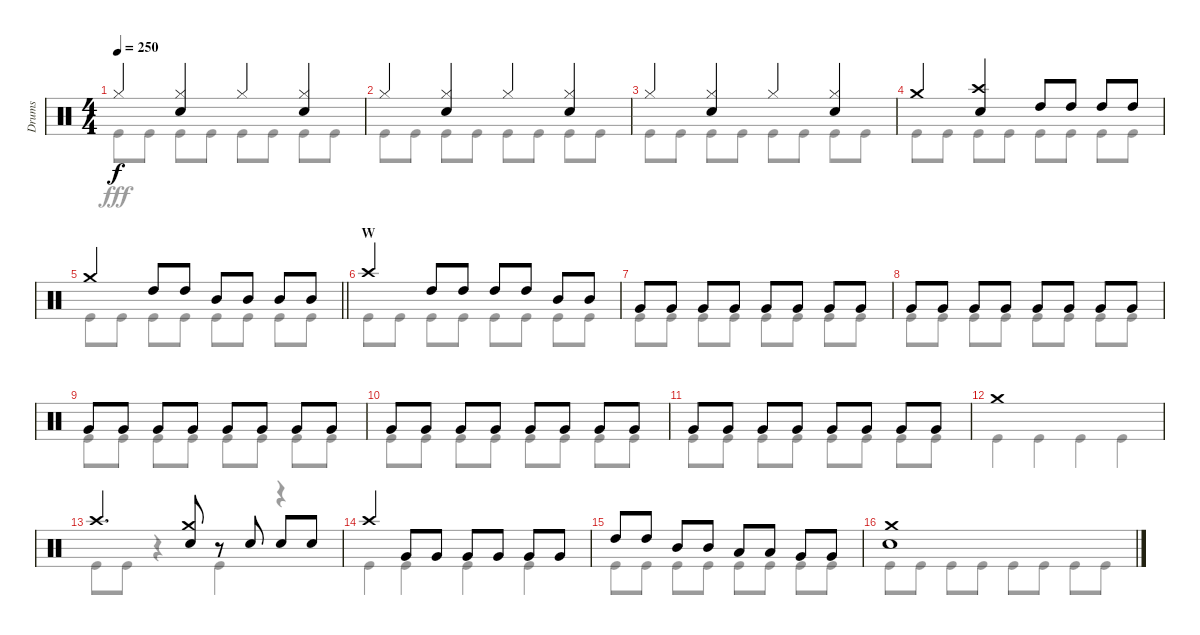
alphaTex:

\track ("Drums" "Drums") {instrument percussion}
\staff {score}
\articulation defaults
\voice
\ts (4 4)
\tempo 250
\clef neutral
\ks c "Hi-Hat (closed)".4{dy f}
("Hi-Hat (closed)" "Snare (hit) 2").4 "Hi-Hat (closed)".4 ("Hi-Hat (closed)" "Snare (hit) 2").4 |
"Hi-Hat (closed)".4 ("Hi-Hat (closed)" "Snare (hit) 2").4 "Hi-Hat (closed)".4 ("Hi-Hat (closed)" "Snare (hit) 2").4 |
"Hi-Hat (closed)".4 ("Hi-Hat (closed)" "Snare (hit) 2").4 "Hi-Hat (closed)".4 ("Hi-Hat (closed)" "Snare (hit) 2").4 |
"Crash medium (hit)".4 ("Crash high (hit)" "Snare (hit) 2").4 "High Tom (hit)".8 "High Tom (hit)".8 "High Tom (hit)".8 "High Tom (hit)".8 |
\barLineRight lightlight "Crash medium (hit)".4 "High Tom (hit)".8 "High Tom (hit)".8 "Mid Tom (hit)".8 "Mid Tom (hit)".8 "Mid Tom (hit)".8 "Mid Tom (hit)".8
|
\section ("" "W")
"Crash high (hit)".4 "High Tom (hit)".8 "High Tom (hit)".8 "High Tom (hit)".8 "High Tom (hit)".8 "Mid Tom (hit)".8 "Mid Tom (hit)".8 |
"Very Low Tom (hit)".8 "Very Low Tom (hit)".8 "Very Low Tom (hit)".8 "Very Low Tom (hit)".8 "Very Low Tom (hit)".8 "Very Low Tom (hit)".8 "Very Low Tom (hit)".8 "Very Low Tom (hit)".8 |
"Very Low Tom (hit)".8 "Very Low Tom (hit)".8 "Very Low Tom (hit)".8 "Very Low Tom (hit)".8 "Very Low Tom (hit)".8 "Very Low Tom (hit)".8 "Very Low Tom (hit)".8 "Very Low Tom (hit)".8 |
"Very Low Tom (hit)".8 "Very Low Tom (hit)".8 "Very Low Tom (hit)".8 "Very Low Tom (hit)".8 "Very Low Tom (hit)".8 "Very Low Tom (hit)".8 "Very Low Tom (hit)".8 "Very Low Tom (hit)".8 |
"Very Low Tom (hit)".8 "Very Low Tom (hit)".8 "Very Low Tom (hit)".8 "Very Low Tom (hit)".8 "Very Low Tom (hit)".8 "Very Low Tom (hit)".8 "Very Low Tom (hit)".8 "Very Low Tom (hit)".8 |
"Very Low Tom (hit)".8 "Very Low Tom (hit)".8 "Very Low Tom (hit)".8 "Very Low Tom (hit)".8 "Very Low Tom (hit)".8 "Very Low Tom (hit)".8 "Very Low Tom (hit)".8 "Very Low Tom (hit)".8 |
"Crash medium (hit)".1 |
"Crash high (hit)".4{d} ("Crash medium (hit)" "Snare (hit) 2").8 r.8 "Snare (hit) 2".8 "Snare (hit) 2".8 "Snare (hit) 2".8 |
"Crash high (hit)".4 "Very Low Tom (hit)".8 "Very Low Tom (hit)".8 "Very Low Tom (hit)".8 "Very Low Tom (hit)".8 "Very Low Tom (hit)".8 "Very Low Tom (hit)".8 |
"High Tom (hit)".8 "High Tom (hit)".8 "Mid Tom (hit)".8 "Mid Tom (hit)".8 "Low Tom (hit)".8 "Low Tom (hit)".8 "Very Low Tom (hit)".8 "Very Low Tom (hit)".8 |
("Crash medium (hit)" "Snare (hit) 2").1
\voice
\clef neutral
\ottava regular
\simile none
\ks c "Kick (hit)".8{dy fff} "Kick (hit)".8 "Kick (hit)".8 "Kick (hit)".8 "Kick (hit)".8 "Kick (hit)".8 "Kick (hit)".8 "Kick (hit)".8
|
"Kick (hit)".8 "Kick (hit)".8 "Kick (hit)".8 "Kick (hit)".8 "Kick (hit)".8 "Kick (hit)".8 "Kick (hit)".8 "Kick (hit)".8 |
"Kick (hit)".8 "Kick (hit)".8 "Kick (hit)".8 "Kick (hit)".8 "Kick (hit)".8 "Kick (hit)".8 "Kick (hit)".8 "Kick (hit)".8 |
"Kick (hit)".8 "Kick (hit)".8 "Kick (hit)".8 "Kick (hit)".8 "Kick (hit)".8 "Kick (hit)".8 "Kick (hit)".8 "Kick (hit)".8 |
\barLineRight lightlight "Kick (hit)".8 "Kick (hit)".8 "Kick (hit)".8 "Kick (hit)".8 "Kick (hit)".8 "Kick (hit)".8 "Kick (hit)".8 "Kick (hit)".8
|
"Kick (hit)".8 "Kick (hit)".8 "Kick (hit)".8 "Kick (hit)".8 "Kick (hit)".8 "Kick (hit)".8 "Kick (hit)".8 "Kick (hit)".8 |
"Kick (hit)".8 "Kick (hit)".8 "Kick (hit)".8 "Kick (hit)".8 "Kick (hit)".8 "Kick (hit)".8 "Kick (hit)".8 "Kick (hit)".8 |
"Kick (hit)".8 "Kick (hit)".8 "Kick (hit)".8 "Kick (hit)".8 "Kick (hit)".8 "Kick (hit)".8 "Kick (hit)".8 "Kick (hit)".8 |
"Kick (hit)".8 "Kick (hit)".8 "Kick (hit)".8 "Kick (hit)".8 "Kick (hit)".8 "Kick (hit)".8 "Kick (hit)".8 "Kick (hit)".8 |
"Kick (hit)".8 "Kick (hit)".8 "Kick (hit)".8 "Kick (hit)".8 "Kick (hit)".8 "Kick (hit)".8 "Kick (hit)".8 "Kick (hit)".8 |
"Kick (hit)".8 "Kick (hit)".8 "Kick (hit)".8 "Kick (hit)".8 "Kick (hit)".8 "Kick (hit)".8 "Kick (hit)".8 "Kick (hit)".8 |
"Kick (hit)".4 "Kick (hit)".4 "Kick (hit)".4 "Kick (hit)".4 |
"Kick (hit)".8 "Kick (hit)".8 r.4 "Kick (hit)".4 r.4 |
"Kick (hit)".4 "Kick (hit)".4 "Kick (hit)".4 "Kick (hit)".4 |
"Kick (hit)".8 "Kick (hit)".8 "Kick (hit)".8 "Kick (hit)".8 "Kick (hit)".8 "Kick (hit)".8 "Kick (hit)".8 "Kick (hit)".8 |
"Kick (hit)".8 "Kick (hit)".8 "Kick (hit)".8 "Kick (hit)".8 "Kick (hit)".8 "Kick (hit)".8 "Kick (hit)".8 "Kick (hit)".8
